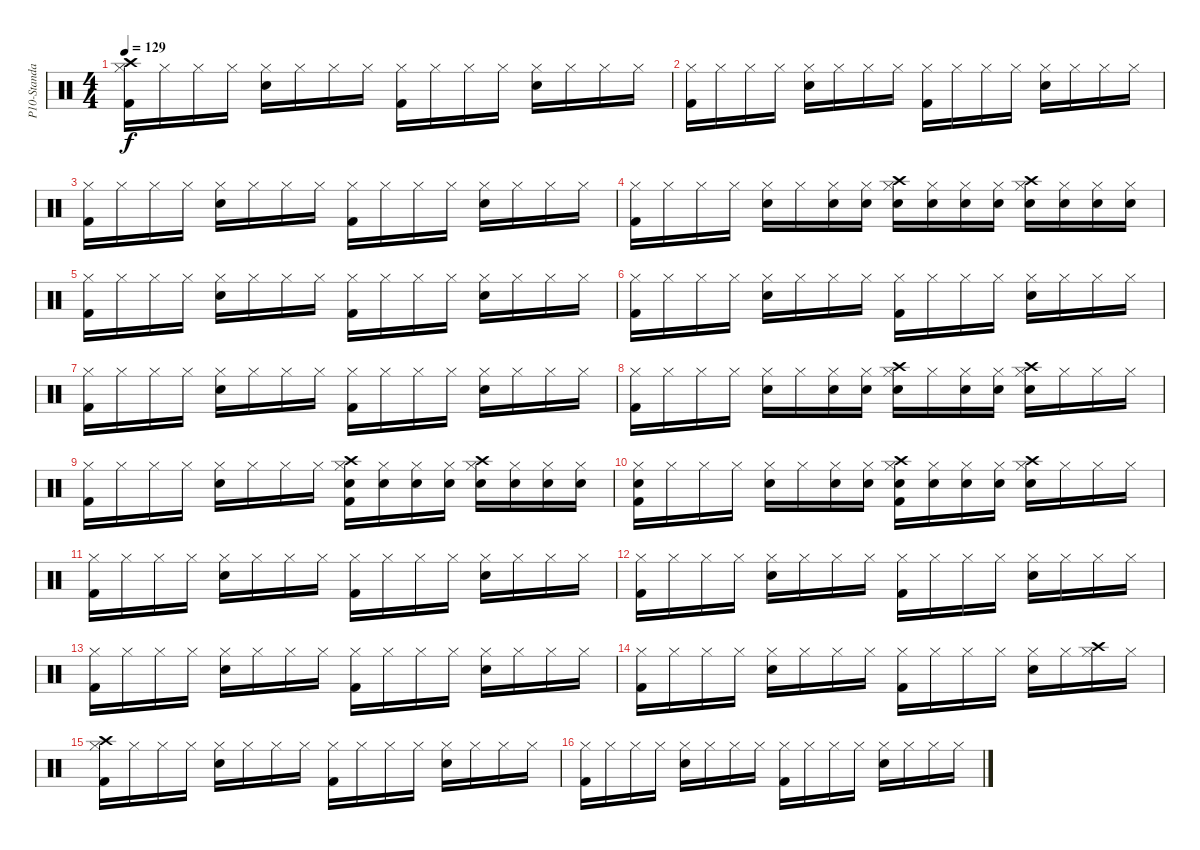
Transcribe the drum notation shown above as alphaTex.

\track ("P10-Standard Kit 2" "P10-Standa") {instrument percussion}
\staff {score}
\articulation defaults
\ts (4 4)
\tempo 129
\clef neutral
\ks c
("Kick (hit) 2" "Hi-Hat (closed)" "Crash high (hit)").16{dy f} "Hi-Hat (closed)".16 "Hi-Hat (closed)".16 "Hi-Hat (closed)".16 ("Hi-Hat (closed)" "Snare (hit) 2").16 "Hi-Hat (closed)".16 "Hi-Hat (closed)".16 "Hi-Hat (closed)".16 ("Kick (hit) 2" "Hi-Hat (closed)").16 "Hi-Hat (closed)".16 "Hi-Hat (closed)".16 "Hi-Hat (closed)".16 ("Hi-Hat (closed)" "Snare (hit) 2").16 "Hi-Hat (closed)".16 "Hi-Hat (closed)".16 "Hi-Hat (closed)".16 |
("Kick (hit) 2" "Hi-Hat (closed)").16 "Hi-Hat (closed)".16 "Hi-Hat (closed)".16 "Hi-Hat (closed)".16 ("Snare (hit) 2" "Hi-Hat (closed)").16 "Hi-Hat (closed)".16 "Hi-Hat (closed)".16 "Hi-Hat (closed)".16 ("Hi-Hat (closed)" "Kick (hit) 2").16 "Hi-Hat (closed)".16 "Hi-Hat (closed)".16 "Hi-Hat (closed)".16 ("Snare (hit) 2" "Hi-Hat (closed)").16 "Hi-Hat (closed)".16 "Hi-Hat (closed)".16 "Hi-Hat (closed)".16 |
("Hi-Hat (closed)" "Kick (hit) 2").16 "Hi-Hat (closed)".16 "Hi-Hat (closed)".16 "Hi-Hat (closed)".16 ("Snare (hit) 2" "Hi-Hat (closed)").16 "Hi-Hat (closed)".16 "Hi-Hat (closed)".16 "Hi-Hat (closed)".16 ("Kick (hit) 2" "Hi-Hat (closed)").16 "Hi-Hat (closed)".16 "Hi-Hat (closed)".16 "Hi-Hat (closed)".16 ("Hi-Hat (closed)" "Snare (hit) 2").16 "Hi-Hat (closed)".16 "Hi-Hat (closed)".16 "Hi-Hat (closed)".16 |
("Hi-Hat (closed)" "Kick (hit) 2").16 "Hi-Hat (closed)".16 "Hi-Hat (closed)".16 "Hi-Hat (closed)".16 ("Snare (hit) 2" "Hi-Hat (closed)").16 "Hi-Hat (closed)".16 ("Snare (hit) 2" "Hi-Hat (closed)").16 ("Hi-Hat (closed)" "Snare (hit) 2").16 ("Crash high (hit)" "Hi-Hat (closed)" "Snare (hit) 2").16 ("Hi-Hat (closed)" "Snare (hit) 2").16 ("Hi-Hat (closed)" "Snare (hit) 2").16 ("Snare (hit) 2" "Hi-Hat (closed)").16 ("Crash high (hit)" "Hi-Hat (closed)" "Snare (hit) 2").16 ("Hi-Hat (closed)" "Snare (hit) 2").16 ("Snare (hit) 2" "Hi-Hat (closed)").16 ("Snare (hit) 2" "Hi-Hat (closed)").16 |
("Kick (hit) 2" "Hi-Hat (closed)").16 "Hi-Hat (closed)".16 "Hi-Hat (closed)".16 "Hi-Hat (closed)".16 ("Snare (hit) 2" "Hi-Hat (closed)").16 "Hi-Hat (closed)".16 "Hi-Hat (closed)".16 "Hi-Hat (closed)".16 ("Hi-Hat (closed)" "Kick (hit) 2").16 "Hi-Hat (closed)".16 "Hi-Hat (closed)".16 "Hi-Hat (closed)".16 ("Snare (hit) 2" "Hi-Hat (closed)").16 "Hi-Hat (closed)".16 "Hi-Hat (closed)".16 "Hi-Hat (closed)".16 |
("Kick (hit) 2" "Hi-Hat (closed)").16 "Hi-Hat (closed)".16 "Hi-Hat (closed)".16 "Hi-Hat (closed)".16 ("Snare (hit) 2" "Hi-Hat (closed)").16 "Hi-Hat (closed)".16 "Hi-Hat (closed)".16 "Hi-Hat (closed)".16 ("Kick (hit) 2" "Hi-Hat (closed)").16 "Hi-Hat (closed)".16 "Hi-Hat (closed)".16 "Hi-Hat (closed)".16 ("Hi-Hat (closed)" "Snare (hit) 2").16 "Hi-Hat (closed)".16 "Hi-Hat (closed)".16 "Hi-Hat (closed)".16 |
("Kick (hit) 2" "Hi-Hat (closed)").16 "Hi-Hat (closed)".16 "Hi-Hat (closed)".16 "Hi-Hat (closed)".16 ("Snare (hit) 2" "Hi-Hat (closed)").16 "Hi-Hat (closed)".16 "Hi-Hat (closed)".16 "Hi-Hat (closed)".16 ("Kick (hit) 2" "Hi-Hat (closed)").16 "Hi-Hat (closed)".16 "Hi-Hat (closed)".16 "Hi-Hat (closed)".16 ("Snare (hit) 2" "Hi-Hat (closed)").16 "Hi-Hat (closed)".16 "Hi-Hat (closed)".16 "Hi-Hat (closed)".16 |
("Kick (hit) 2" "Hi-Hat (closed)").16 "Hi-Hat (closed)".16 "Hi-Hat (closed)".16 "Hi-Hat (closed)".16 ("Hi-Hat (closed)" "Snare (hit) 2").16 "Hi-Hat (closed)".16 ("Hi-Hat (closed)" "Snare (hit) 2").16 ("Hi-Hat (closed)" "Snare (hit) 2").16 ("Hi-Hat (closed)" "Snare (hit) 2" "Crash high (hit)").16 "Hi-Hat (closed)".16 ("Snare (hit) 2" "Hi-Hat (closed)").16 ("Snare (hit) 2" "Hi-Hat (closed)").16 ("Crash high (hit)" "Snare (hit) 2" "Hi-Hat (closed)").16 "Hi-Hat (closed)".16 "Hi-Hat (closed)".16 "Hi-Hat (closed)".16 |
("Hi-Hat (closed)" "Kick (hit) 2").16 "Hi-Hat (closed)".16 "Hi-Hat (closed)".16 "Hi-Hat (closed)".16 ("Snare (hit) 2" "Hi-Hat (closed)").16 "Hi-Hat (closed)".16 "Hi-Hat (closed)".16 "Hi-Hat (closed)".16 ("Crash high (hit)" "Hi-Hat (closed)" "Kick (hit) 2" "Snare (hit) 2").16 ("Snare (hit) 2" "Hi-Hat (closed)").16 ("Hi-Hat (closed)" "Snare (hit) 2").16 ("Snare (hit) 2" "Hi-Hat (closed)").16 ("Crash high (hit)" "Snare (hit) 2" "Hi-Hat (closed)").16 ("Snare (hit) 2" "Hi-Hat (closed)").16 ("Hi-Hat (closed)" "Snare (hit) 2").16 ("Hi-Hat (closed)" "Snare (hit) 2").16 |
("Kick (hit) 2" "Hi-Hat (closed)" "Snare (hit) 2").16 "Hi-Hat (closed)".16 "Hi-Hat (closed)".16 "Hi-Hat (closed)".16 ("Hi-Hat (closed)" "Snare (hit) 2").16 "Hi-Hat (closed)".16 ("Snare (hit) 2" "Hi-Hat (closed)").16 ("Snare (hit) 2" "Hi-Hat (closed)").16 ("Hi-Hat (closed)" "Snare (hit) 2" "Kick (hit) 2" "Crash high (hit)").16 ("Hi-Hat (closed)" "Snare (hit) 2").16 ("Snare (hit) 2" "Hi-Hat (closed)").16 ("Hi-Hat (closed)" "Snare (hit) 2").16 ("Snare (hit) 2" "Crash high (hit)" "Hi-Hat (closed)").16 "Hi-Hat (closed)".16 "Hi-Hat (closed)".16 "Hi-Hat (closed)".16 |
("Hi-Hat (closed)" "Kick (hit) 2").16 "Hi-Hat (closed)".16 "Hi-Hat (closed)".16 "Hi-Hat (closed)".16 ("Snare (hit) 2" "Hi-Hat (closed)").16 "Hi-Hat (closed)".16 "Hi-Hat (closed)".16 "Hi-Hat (closed)".16 ("Hi-Hat (closed)" "Kick (hit) 2").16 "Hi-Hat (closed)".16 "Hi-Hat (closed)".16 "Hi-Hat (closed)".16 ("Snare (hit) 2" "Hi-Hat (closed)").16 "Hi-Hat (closed)".16 "Hi-Hat (closed)".16 "Hi-Hat (closed)".16 |
("Kick (hit) 2" "Hi-Hat (closed)").16 "Hi-Hat (closed)".16 "Hi-Hat (closed)".16 "Hi-Hat (closed)".16 ("Hi-Hat (closed)" "Snare (hit) 2").16 "Hi-Hat (closed)".16 "Hi-Hat (closed)".16 "Hi-Hat (closed)".16 ("Kick (hit) 2" "Hi-Hat (closed)").16 "Hi-Hat (closed)".16 "Hi-Hat (closed)".16 "Hi-Hat (closed)".16 ("Hi-Hat (closed)" "Snare (hit) 2").16 "Hi-Hat (closed)".16 "Hi-Hat (closed)".16 "Hi-Hat (closed)".16 |
("Kick (hit) 2" "Hi-Hat (closed)").16 "Hi-Hat (closed)".16 "Hi-Hat (closed)".16 "Hi-Hat (closed)".16 ("Snare (hit) 2" "Hi-Hat (closed)").16 "Hi-Hat (closed)".16 "Hi-Hat (closed)".16 "Hi-Hat (closed)".16 ("Hi-Hat (closed)" "Kick (hit) 2").16 "Hi-Hat (closed)".16 "Hi-Hat (closed)".16 "Hi-Hat (closed)".16 ("Snare (hit) 2" "Hi-Hat (closed)").16 "Hi-Hat (closed)".16 "Hi-Hat (closed)".16 "Hi-Hat (closed)".16 |
("Kick (hit) 2" "Hi-Hat (closed)").16 "Hi-Hat (closed)".16 "Hi-Hat (closed)".16 "Hi-Hat (closed)".16 ("Snare (hit) 2" "Hi-Hat (closed)").16 "Hi-Hat (closed)".16 "Hi-Hat (closed)".16 "Hi-Hat (closed)".16 ("Hi-Hat (closed)" "Kick (hit) 2").16 "Hi-Hat (closed)".16 "Hi-Hat (closed)".16 "Hi-Hat (closed)".16 ("Snare (hit) 2" "Hi-Hat (closed)").16 "Hi-Hat (closed)".16 ("Crash high (hit)" "Hi-Hat (closed)").16 "Hi-Hat (closed)".16 |
("Crash high (hit)" "Hi-Hat (closed)" "Kick (hit) 2").16 "Hi-Hat (closed)".16 "Hi-Hat (closed)".16 "Hi-Hat (closed)".16 ("Snare (hit) 2" "Hi-Hat (closed)").16 "Hi-Hat (closed)".16 "Hi-Hat (closed)".16 "Hi-Hat (closed)".16 ("Hi-Hat (closed)" "Kick (hit) 2").16 "Hi-Hat (closed)".16 "Hi-Hat (closed)".16 "Hi-Hat (closed)".16 ("Snare (hit) 2" "Hi-Hat (closed)").16 "Hi-Hat (closed)".16 "Hi-Hat (closed)".16 "Hi-Hat (closed)".16 |
("Kick (hit) 2" "Hi-Hat (closed)").16 "Hi-Hat (closed)".16 "Hi-Hat (closed)".16 "Hi-Hat (closed)".16 ("Hi-Hat (closed)" "Snare (hit) 2").16 "Hi-Hat (closed)".16 "Hi-Hat (closed)".16 "Hi-Hat (closed)".16 ("Kick (hit) 2" "Hi-Hat (closed)").16 "Hi-Hat (closed)".16 "Hi-Hat (closed)".16 "Hi-Hat (closed)".16 ("Hi-Hat (closed)" "Snare (hit) 2").16 "Hi-Hat (closed)".16 "Hi-Hat (closed)".16 "Hi-Hat (closed)".16
